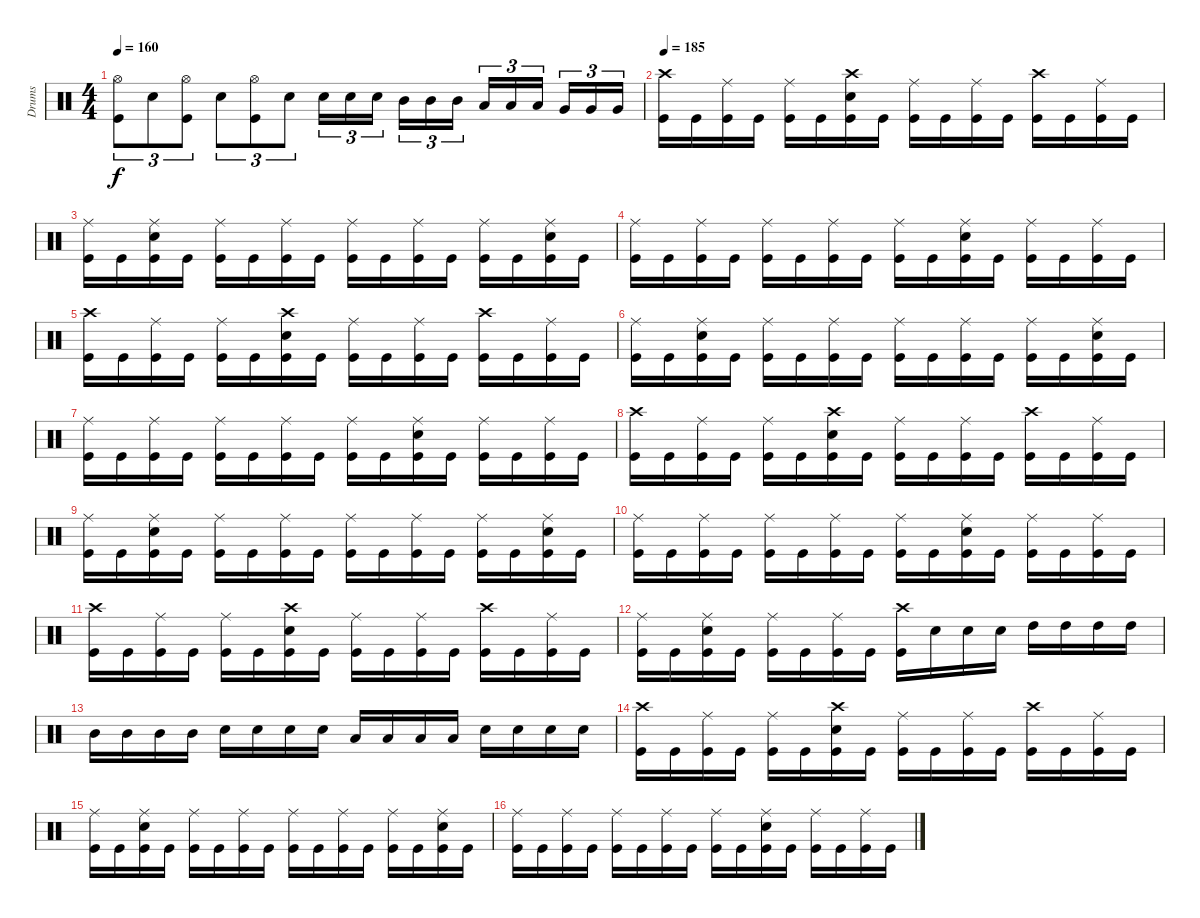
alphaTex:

\track ("Drums" "Drums") {instrument percussion}
\staff {score}
\articulation defaults
\ts (4 4)
\tempo 160
\clef neutral
\ks c
("Hi-Hat (open)" "Kick (hit)").8{tu (3 2) dy f} "Electric Snare (hit)".8{tu (3 2)} ("Hi-Hat (open)" "Kick (hit)").8{tu (3 2)} "Electric Snare (hit)".8{tu (3 2)} ("Hi-Hat (open)" "Kick (hit)").8{tu (3 2)} "Electric Snare (hit)".8{tu (3 2)} "Electric Snare (hit)".16{tu (3 2)} "Electric Snare (hit)".16{tu (3 2)} "Electric Snare (hit)".16{tu (3 2)} "Mid Tom (hit)".16{tu (3 2)} "Mid Tom (hit)".16{tu (3 2)} "Mid Tom (hit)".16{tu (3 2)} "Low Tom (hit)".16{tu (3 2)} "Low Tom (hit)".16{tu (3 2)} "Low Tom (hit)".16{tu (3 2)} "Very Low Tom (hit)".16{tu (3 2)} "Very Low Tom (hit)".16{tu (3 2)} "Very Low Tom (hit)".16{tu (3 2)} |
\tempo 185
("Crash high (hit)" "Kick (hit)").16 "Kick (hit)".16 ("Ride (middle)" "Kick (hit)").16 "Kick (hit)".16 ("Ride (middle)" "Kick (hit)").16 "Kick (hit)".16 ("Crash high (hit)" "Electric Snare (hit)" "Kick (hit)").16 "Kick (hit)".16 ("Ride (middle)" "Kick (hit)").16 "Kick (hit)".16 ("Ride (middle)" "Kick (hit)").16 "Kick (hit)".16 ("Crash high (hit)" "Kick (hit)").16 "Kick (hit)".16 ("Ride (middle)" "Kick (hit)").16 "Kick (hit)".16 |
("Ride (middle)" "Kick (hit)").16 "Kick (hit)".16 ("Ride (middle)" "Electric Snare (hit)" "Kick (hit)").16 "Kick (hit)".16 ("Ride (middle)" "Kick (hit)").16 "Kick (hit)".16 ("Ride (middle)" "Kick (hit)").16 "Kick (hit)".16 ("Ride (middle)" "Kick (hit)").16 "Kick (hit)".16 ("Ride (middle)" "Kick (hit)").16 "Kick (hit)".16 ("Ride (middle)" "Kick (hit)").16 "Kick (hit)".16 ("Ride (middle)" "Electric Snare (hit)" "Kick (hit)").16 "Kick (hit)".16 |
("Ride (middle)" "Kick (hit)").16 "Kick (hit)".16 ("Ride (middle)" "Kick (hit)").16 "Kick (hit)".16 ("Ride (middle)" "Kick (hit)").16 "Kick (hit)".16 ("Ride (middle)" "Kick (hit)").16 "Kick (hit)".16 ("Ride (middle)" "Kick (hit)").16 "Kick (hit)".16 ("Ride (middle)" "Electric Snare (hit)" "Kick (hit)").16 "Kick (hit)".16 ("Ride (middle)" "Kick (hit)").16 "Kick (hit)".16 ("Ride (middle)" "Kick (hit)").16 "Kick (hit)".16 |
("Crash high (hit)" "Kick (hit)").16 "Kick (hit)".16 ("Ride (middle)" "Kick (hit)").16 "Kick (hit)".16 ("Ride (middle)" "Kick (hit)").16 "Kick (hit)".16 ("Crash high (hit)" "Electric Snare (hit)" "Kick (hit)").16 "Kick (hit)".16 ("Ride (middle)" "Kick (hit)").16 "Kick (hit)".16 ("Ride (middle)" "Kick (hit)").16 "Kick (hit)".16 ("Crash high (hit)" "Kick (hit)").16 "Kick (hit)".16 ("Ride (middle)" "Kick (hit)").16 "Kick (hit)".16 |
("Ride (middle)" "Kick (hit)").16 "Kick (hit)".16 ("Ride (middle)" "Electric Snare (hit)" "Kick (hit)").16 "Kick (hit)".16 ("Ride (middle)" "Kick (hit)").16 "Kick (hit)".16 ("Ride (middle)" "Kick (hit)").16 "Kick (hit)".16 ("Ride (middle)" "Kick (hit)").16 "Kick (hit)".16 ("Ride (middle)" "Kick (hit)").16 "Kick (hit)".16 ("Ride (middle)" "Kick (hit)").16 "Kick (hit)".16 ("Ride (middle)" "Electric Snare (hit)" "Kick (hit)").16 "Kick (hit)".16 |
("Ride (middle)" "Kick (hit)").16 "Kick (hit)".16 ("Ride (middle)" "Kick (hit)").16 "Kick (hit)".16 ("Ride (middle)" "Kick (hit)").16 "Kick (hit)".16 ("Ride (middle)" "Kick (hit)").16 "Kick (hit)".16 ("Ride (middle)" "Kick (hit)").16 "Kick (hit)".16 ("Ride (middle)" "Electric Snare (hit)" "Kick (hit)").16 "Kick (hit)".16 ("Ride (middle)" "Kick (hit)").16 "Kick (hit)".16 ("Ride (middle)" "Kick (hit)").16 "Kick (hit)".16 |
("Crash high (hit)" "Kick (hit)").16 "Kick (hit)".16 ("Ride (middle)" "Kick (hit)").16 "Kick (hit)".16 ("Ride (middle)" "Kick (hit)").16 "Kick (hit)".16 ("Crash high (hit)" "Electric Snare (hit)" "Kick (hit)").16 "Kick (hit)".16 ("Ride (middle)" "Kick (hit)").16 "Kick (hit)".16 ("Ride (middle)" "Kick (hit)").16 "Kick (hit)".16 ("Crash high (hit)" "Kick (hit)").16 "Kick (hit)".16 ("Ride (middle)" "Kick (hit)").16 "Kick (hit)".16 |
("Ride (middle)" "Kick (hit)").16 "Kick (hit)".16 ("Ride (middle)" "Electric Snare (hit)" "Kick (hit)").16 "Kick (hit)".16 ("Ride (middle)" "Kick (hit)").16 "Kick (hit)".16 ("Ride (middle)" "Kick (hit)").16 "Kick (hit)".16 ("Ride (middle)" "Kick (hit)").16 "Kick (hit)".16 ("Ride (middle)" "Kick (hit)").16 "Kick (hit)".16 ("Ride (middle)" "Kick (hit)").16 "Kick (hit)".16 ("Ride (middle)" "Electric Snare (hit)" "Kick (hit)").16 "Kick (hit)".16 |
("Ride (middle)" "Kick (hit)").16 "Kick (hit)".16 ("Ride (middle)" "Kick (hit)").16 "Kick (hit)".16 ("Ride (middle)" "Kick (hit)").16 "Kick (hit)".16 ("Ride (middle)" "Kick (hit)").16 "Kick (hit)".16 ("Ride (middle)" "Kick (hit)").16 "Kick (hit)".16 ("Ride (middle)" "Electric Snare (hit)" "Kick (hit)").16 "Kick (hit)".16 ("Ride (middle)" "Kick (hit)").16 "Kick (hit)".16 ("Ride (middle)" "Kick (hit)").16 "Kick (hit)".16 |
("Crash high (hit)" "Kick (hit)").16 "Kick (hit)".16 ("Ride (middle)" "Kick (hit)").16 "Kick (hit)".16 ("Ride (middle)" "Kick (hit)").16 "Kick (hit)".16 ("Crash high (hit)" "Electric Snare (hit)" "Kick (hit)").16 "Kick (hit)".16 ("Ride (middle)" "Kick (hit)").16 "Kick (hit)".16 ("Ride (middle)" "Kick (hit)").16 "Kick (hit)".16 ("Crash high (hit)" "Kick (hit)").16 "Kick (hit)".16 ("Ride (middle)" "Kick (hit)").16 "Kick (hit)".16 |
("Ride (middle)" "Kick (hit)").16 "Kick (hit)".16 ("Ride (middle)" "Electric Snare (hit)" "Kick (hit)").16 "Kick (hit)".16 ("Ride (middle)" "Kick (hit)").16 "Kick (hit)".16 ("Ride (middle)" "Kick (hit)").16 "Kick (hit)".16 ("Crash high (hit)" "Kick (hit)").16 "Electric Snare (hit)".16 "Electric Snare (hit)".16 "Electric Snare (hit)".16 "High Tom (hit)".16 "High Tom (hit)".16 "High Tom (hit)".16 "High Tom (hit)".16 |
"Mid Tom (hit)".16 "Mid Tom (hit)".16 "Mid Tom (hit)".16 "Mid Tom (hit)".16 "Electric Snare (hit)".16 "Electric Snare (hit)".16 "Electric Snare (hit)".16 "Electric Snare (hit)".16 "Low Tom (hit)".16 "Low Tom (hit)".16 "Low Tom (hit)".16 "Low Tom (hit)".16 "Electric Snare (hit)".16 "Electric Snare (hit)".16 "Electric Snare (hit)".16 "Electric Snare (hit)".16 |
("Crash high (hit)" "Kick (hit)").16 "Kick (hit)".16 ("Ride (middle)" "Kick (hit)").16 "Kick (hit)".16 ("Ride (middle)" "Kick (hit)").16 "Kick (hit)".16 ("Crash high (hit)" "Electric Snare (hit)" "Kick (hit)").16 "Kick (hit)".16 ("Ride (middle)" "Kick (hit)").16 "Kick (hit)".16 ("Ride (middle)" "Kick (hit)").16 "Kick (hit)".16 ("Crash high (hit)" "Kick (hit)").16 "Kick (hit)".16 ("Ride (middle)" "Kick (hit)").16 "Kick (hit)".16 |
("Ride (middle)" "Kick (hit)").16 "Kick (hit)".16 ("Ride (middle)" "Electric Snare (hit)" "Kick (hit)").16 "Kick (hit)".16 ("Ride (middle)" "Kick (hit)").16 "Kick (hit)".16 ("Ride (middle)" "Kick (hit)").16 "Kick (hit)".16 ("Ride (middle)" "Kick (hit)").16 "Kick (hit)".16 ("Ride (middle)" "Kick (hit)").16 "Kick (hit)".16 ("Ride (middle)" "Kick (hit)").16 "Kick (hit)".16 ("Ride (middle)" "Electric Snare (hit)" "Kick (hit)").16 "Kick (hit)".16 |
("Ride (middle)" "Kick (hit)").16 "Kick (hit)".16 ("Ride (middle)" "Kick (hit)").16 "Kick (hit)".16 ("Ride (middle)" "Kick (hit)").16 "Kick (hit)".16 ("Ride (middle)" "Kick (hit)").16 "Kick (hit)".16 ("Ride (middle)" "Kick (hit)").16 "Kick (hit)".16 ("Ride (middle)" "Electric Snare (hit)" "Kick (hit)").16 "Kick (hit)".16 ("Ride (middle)" "Kick (hit)").16 "Kick (hit)".16 ("Ride (middle)" "Kick (hit)").16 "Kick (hit)".16
